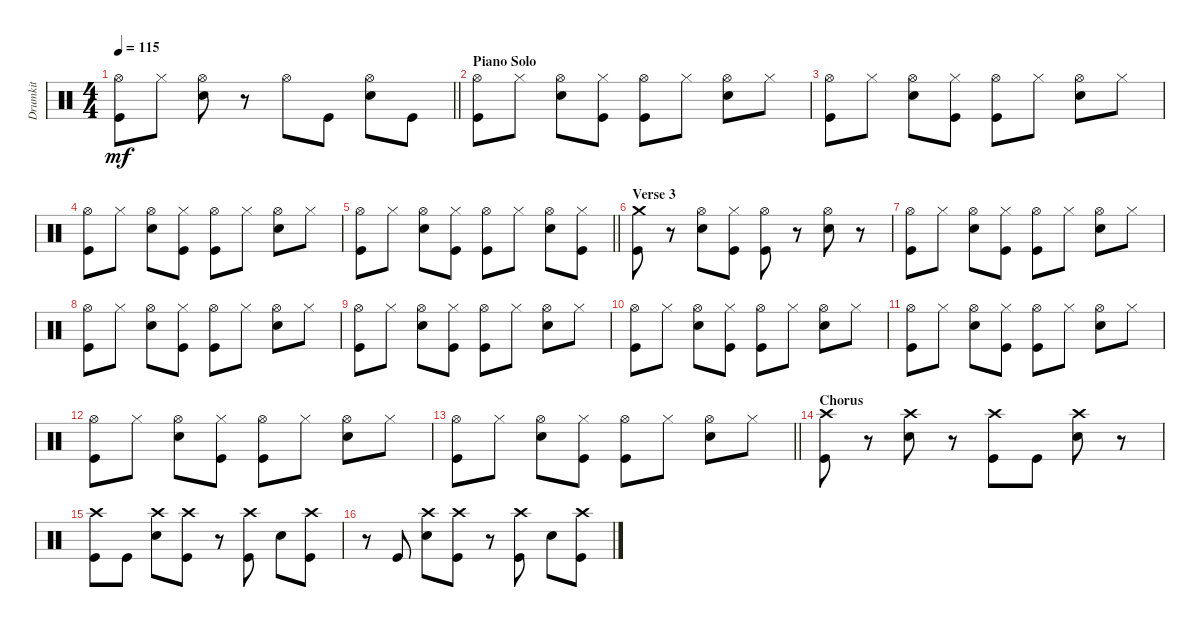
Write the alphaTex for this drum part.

\track ("Drumkit" "Drumkit") {instrument percussion}
\staff {score}
\articulation defaults
\ts (4 4)
\tempo 115
\clef neutral
\barLineRight lightlight
\ks c
("Hi-Hat (open)" "Kick (hit)").8{dy mf} "Hi-Hat (closed)".8 ("Hi-Hat (open)" "Snare (hit) 2").8 r.8 "Hi-Hat (open)".8 "Kick (hit)".8 ("Hi-Hat (open)" "Snare (hit) 2").8 "Kick (hit)".8 |
\section ("" "Piano Solo")
("Hi-Hat (open)" "Kick (hit)").8 "Hi-Hat (closed)".8 ("Hi-Hat (open)" "Snare (hit) 2").8 ("Hi-Hat (closed)" "Kick (hit)").8 ("Hi-Hat (open)" "Kick (hit)").8 "Hi-Hat (closed)".8 ("Hi-Hat (open)" "Snare (hit) 2").8 "Hi-Hat (closed)".8 |
("Hi-Hat (open)" "Kick (hit)").8 "Hi-Hat (closed)".8 ("Hi-Hat (open)" "Snare (hit) 2").8 ("Hi-Hat (closed)" "Kick (hit)").8 ("Hi-Hat (open)" "Kick (hit)").8 "Hi-Hat (closed)".8 ("Hi-Hat (open)" "Snare (hit) 2").8 "Hi-Hat (closed)".8 |
("Hi-Hat (open)" "Kick (hit)").8 "Hi-Hat (closed)".8 ("Hi-Hat (open)" "Snare (hit) 2").8 ("Hi-Hat (closed)" "Kick (hit)").8 ("Hi-Hat (open)" "Kick (hit)").8 "Hi-Hat (closed)".8 ("Hi-Hat (open)" "Snare (hit) 2").8 "Hi-Hat (closed)".8 |
\barLineRight lightlight
("Hi-Hat (open)" "Kick (hit)").8 "Hi-Hat (closed)".8 ("Hi-Hat (open)" "Snare (hit) 2").8 ("Hi-Hat (closed)" "Kick (hit)").8 ("Hi-Hat (open)" "Kick (hit)").8 "Hi-Hat (closed)".8 ("Hi-Hat (open)" "Snare (hit) 2").8 ("Hi-Hat (closed)" "Kick (hit)").8 |
\section ("" "Verse 3")
("Crash medium (hit)" "Kick (hit)").8 r.8 ("Hi-Hat (open)" "Snare (hit) 2").8 ("Hi-Hat (closed)" "Kick (hit)").8 ("Hi-Hat (open)" "Kick (hit)").8 r.8 ("Hi-Hat (open)" "Snare (hit) 2").8 r.8 |
("Hi-Hat (open)" "Kick (hit)").8 "Hi-Hat (closed)".8 ("Hi-Hat (open)" "Snare (hit) 2").8 ("Hi-Hat (closed)" "Kick (hit)").8 ("Hi-Hat (open)" "Kick (hit)").8 "Hi-Hat (closed)".8 ("Hi-Hat (open)" "Snare (hit) 2").8 "Hi-Hat (closed)".8 |
("Hi-Hat (open)" "Kick (hit)").8 "Hi-Hat (closed)".8 ("Hi-Hat (open)" "Snare (hit) 2").8 ("Hi-Hat (closed)" "Kick (hit)").8 ("Hi-Hat (open)" "Kick (hit)").8 "Hi-Hat (closed)".8 ("Hi-Hat (open)" "Snare (hit) 2").8 "Hi-Hat (closed)".8 |
("Hi-Hat (open)" "Kick (hit)").8 "Hi-Hat (closed)".8 ("Hi-Hat (open)" "Snare (hit) 2").8 ("Hi-Hat (closed)" "Kick (hit)").8 ("Hi-Hat (open)" "Kick (hit)").8 "Hi-Hat (closed)".8 ("Hi-Hat (open)" "Snare (hit) 2").8 "Hi-Hat (closed)".8 |
("Hi-Hat (open)" "Kick (hit)").8 "Hi-Hat (closed)".8 ("Hi-Hat (open)" "Snare (hit) 2").8 ("Hi-Hat (closed)" "Kick (hit)").8 ("Hi-Hat (open)" "Kick (hit)").8 "Hi-Hat (closed)".8 ("Hi-Hat (open)" "Snare (hit) 2").8 "Hi-Hat (closed)".8 |
("Hi-Hat (open)" "Kick (hit)").8 "Hi-Hat (closed)".8 ("Hi-Hat (open)" "Snare (hit) 2").8 ("Hi-Hat (closed)" "Kick (hit)").8 ("Hi-Hat (open)" "Kick (hit)").8 "Hi-Hat (closed)".8 ("Hi-Hat (open)" "Snare (hit) 2").8 "Hi-Hat (closed)".8 |
("Hi-Hat (open)" "Kick (hit)").8 "Hi-Hat (closed)".8 ("Hi-Hat (open)" "Snare (hit) 2").8 ("Hi-Hat (closed)" "Kick (hit)").8 ("Hi-Hat (open)" "Kick (hit)").8 "Hi-Hat (closed)".8 ("Hi-Hat (open)" "Snare (hit) 2").8 "Hi-Hat (closed)".8 |
\barLineRight lightlight
("Hi-Hat (open)" "Kick (hit)").8 "Hi-Hat (closed)".8 ("Hi-Hat (open)" "Snare (hit) 2").8 ("Hi-Hat (closed)" "Kick (hit)").8 ("Hi-Hat (open)" "Kick (hit)").8 "Hi-Hat (closed)".8 ("Hi-Hat (open)" "Snare (hit) 2").8 "Hi-Hat (closed)".8 |
\section ("" "Chorus")
("Kick (hit)" "Crash high (hit)").8 r.8 ("Snare (hit) 2" "Crash high (hit)").8 r.8 ("Kick (hit)" "Crash high (hit)").8 "Kick (hit)".8 ("Snare (hit) 2" "Crash high (hit)").8 r.8 |
("Kick (hit)" "Crash high (hit)").8 "Kick (hit)".8 ("Snare (hit) 2" "Crash high (hit)").8 ("Kick (hit)" "Crash high (hit)").8 r.8 ("Kick (hit)" "Crash high (hit)").8 "Snare (hit) 2".8 ("Kick (hit)" "Crash high (hit)").8 |
r.8 "Kick (hit)".8 ("Snare (hit) 2" "Crash high (hit)").8 ("Kick (hit)" "Crash high (hit)").8 r.8 ("Kick (hit)" "Crash high (hit)").8 "Snare (hit) 2".8 ("Kick (hit)" "Crash high (hit)").8
